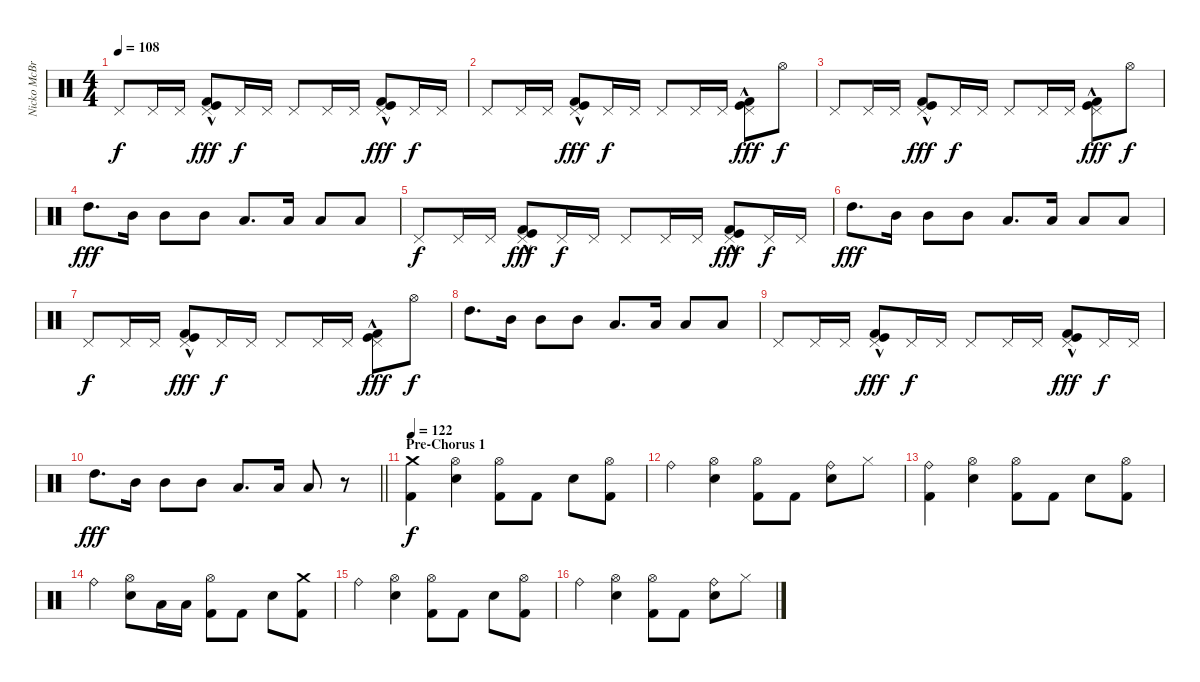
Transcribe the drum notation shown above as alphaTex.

\track ("Nicko McBrain" "Nicko McBr") {instrument percussion}
\staff {score}
\articulation defaults
\ts (4 4)
\tempo 108
\clef neutral
\ks c "Pedal Hi-Hat (hit)".8{dy f} "Pedal Hi-Hat (hit)".16 "Pedal Hi-Hat (hit)".16
("Pedal Hi-Hat (hit)" "Kick (hit)" "Kick (hit) 2"{hac}).8{dy fff} "Pedal Hi-Hat (hit)".16{dy f} "Pedal Hi-Hat (hit)".16 "Pedal Hi-Hat (hit)".8 "Pedal Hi-Hat (hit)".16 "Pedal Hi-Hat (hit)".16 ("Pedal Hi-Hat (hit)" "Kick (hit)" "Kick (hit) 2"{hac}).8{dy fff} "Pedal Hi-Hat (hit)".16{dy f} "Pedal Hi-Hat (hit)".16 |
"Pedal Hi-Hat (hit)".8 "Pedal Hi-Hat (hit)".16 "Pedal Hi-Hat (hit)".16 ("Pedal Hi-Hat (hit)" "Kick (hit)" "Kick (hit) 2"{hac}).8{dy fff} "Pedal Hi-Hat (hit)".16{dy f} "Pedal Hi-Hat (hit)".16 "Pedal Hi-Hat (hit)".8 "Pedal Hi-Hat (hit)".16 "Pedal Hi-Hat (hit)".16 ("Pedal Hi-Hat (hit)" "Kick (hit)" "Kick (hit) 2"{hac}).8{dy fff} "Hi-Hat (open)".8{dy f} |
"Pedal Hi-Hat (hit)".8 "Pedal Hi-Hat (hit)".16 "Pedal Hi-Hat (hit)".16 ("Pedal Hi-Hat (hit)" "Kick (hit)" "Kick (hit) 2"{hac}).8{dy fff} "Pedal Hi-Hat (hit)".16{dy f} "Pedal Hi-Hat (hit)".16 "Pedal Hi-Hat (hit)".8 "Pedal Hi-Hat (hit)".16 "Pedal Hi-Hat (hit)".16 ("Pedal Hi-Hat (hit)" "Kick (hit)" "Kick (hit) 2"{hac}).8{dy fff} "Hi-Hat (open)".8{dy f} |
"High Tom (hit)".8{d dy fff} "Mid Tom (hit)".16 "Mid Tom (hit)".8 "Mid Tom (hit)".8 "Low Tom (hit)".8{d} "Low Tom (hit)".16 "Low Floor Tom (hit)".8 "Low Floor Tom (hit)".8 |
"Pedal Hi-Hat (hit)".8{dy f} "Pedal Hi-Hat (hit)".16 "Pedal Hi-Hat (hit)".16 ("Pedal Hi-Hat (hit)" "Kick (hit)" "Kick (hit) 2"{hac}).8{dy fff} "Pedal Hi-Hat (hit)".16{dy f} "Pedal Hi-Hat (hit)".16 "Pedal Hi-Hat (hit)".8 "Pedal Hi-Hat (hit)".16 "Pedal Hi-Hat (hit)".16 ("Pedal Hi-Hat (hit)" "Kick (hit)" "Kick (hit) 2"{hac}).8{dy fff} "Pedal Hi-Hat (hit)".16{dy f} "Pedal Hi-Hat (hit)".16 |
"High Tom (hit)".8{d dy fff} "Mid Tom (hit)".16 "Mid Tom (hit)".8 "Mid Tom (hit)".8 "Low Tom (hit)".8{d} "Low Tom (hit)".16 "Low Floor Tom (hit)".8 "Low Floor Tom (hit)".8 |
"Pedal Hi-Hat (hit)".8{dy f} "Pedal Hi-Hat (hit)".16 "Pedal Hi-Hat (hit)".16 ("Pedal Hi-Hat (hit)" "Kick (hit)" "Kick (hit) 2"{hac}).8{dy fff} "Pedal Hi-Hat (hit)".16{dy f} "Pedal Hi-Hat (hit)".16 "Pedal Hi-Hat (hit)".8 "Pedal Hi-Hat (hit)".16 "Pedal Hi-Hat (hit)".16 ("Pedal Hi-Hat (hit)" "Kick (hit)" "Kick (hit) 2"{hac}).8{dy fff} "Hi-Hat (open)".8{dy f} |
"High Tom (hit)".8{d} "Mid Tom (hit)".16 "Mid Tom (hit)".8 "Mid Tom (hit)".8 "Low Tom (hit)".8{d} "Low Tom (hit)".16 "Low Floor Tom (hit)".8 "Low Floor Tom (hit)".8 |
"Pedal Hi-Hat (hit)".8 "Pedal Hi-Hat (hit)".16 "Pedal Hi-Hat (hit)".16 ("Pedal Hi-Hat (hit)" "Kick (hit)" "Kick (hit) 2"{hac}).8{dy fff} "Pedal Hi-Hat (hit)".16{dy f} "Pedal Hi-Hat (hit)".16 "Pedal Hi-Hat (hit)".8 "Pedal Hi-Hat (hit)".16 "Pedal Hi-Hat (hit)".16 ("Pedal Hi-Hat (hit)" "Kick (hit)" "Kick (hit) 2"{hac}).8{dy fff} "Pedal Hi-Hat (hit)".16{dy f} "Pedal Hi-Hat (hit)".16 |
\barLineRight lightlight "High Tom (hit)".8{d dy fff} "Mid Tom (hit)".16 "Mid Tom (hit)".8 "Mid Tom (hit)".8 "Low Tom (hit)".8{d} "Low Tom (hit)".16 "Low Floor Tom (hit)".8
r.8 |
\section ("" "Pre-Chorus 1")
\tempo 122
("Crash medium (hit)" "Kick (hit) 2").4{dy f} ("Hi-Hat (open)" "Electric Snare (hit)").4 ("Hi-Hat (open)" "Kick (hit) 2").8 "Kick (hit) 2".8 "Electric Snare (hit)".8 ("Hi-Hat (open)" "Kick (hit) 2").8 |
"Ride (bell)".4 ("Hi-Hat (open)" "Electric Snare (hit)").4 ("Hi-Hat (open)" "Kick (hit) 2").8 "Kick (hit) 2".8 ("Ride (bell)" "Electric Snare (hit)").8 "Hi-Hat (closed)".8 |
("Ride (bell)" "Kick (hit) 2").4 ("Hi-Hat (open)" "Electric Snare (hit)").4 ("Hi-Hat (open)" "Kick (hit) 2").8 "Kick (hit) 2".8 "Electric Snare (hit)".8 ("Hi-Hat (open)" "Kick (hit) 2").8 |
"Ride (bell)".4 ("Hi-Hat (open)" "Electric Snare (hit)").8 "Low Tom (hit)".16 "Low Tom (hit)".16 ("Hi-Hat (open)" "Kick (hit) 2").8 "Kick (hit) 2".8 "Electric Snare (hit)".8 ("Crash medium (hit)" "Kick (hit) 2").8 |
"Ride (bell)".4 ("Hi-Hat (open)" "Electric Snare (hit)").4 ("Hi-Hat (open)" "Kick (hit) 2").8 "Kick (hit) 2".8 "Electric Snare (hit)".8 ("Hi-Hat (open)" "Kick (hit) 2").8 |
"Ride (bell)".4 ("Hi-Hat (open)" "Electric Snare (hit)").4 ("Hi-Hat (open)" "Kick (hit) 2").8 "Kick (hit) 2".8 ("Ride (bell)" "Electric Snare (hit)").8 "Hi-Hat (closed)".8
